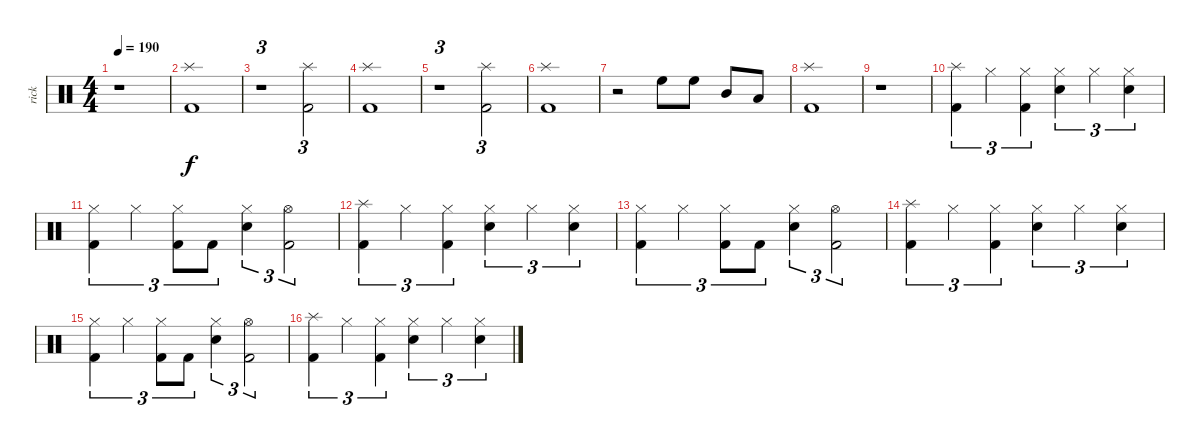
\track ("rick" "rick") {instrument percussion}
\staff {score}
\articulation defaults
\ts (4 4)
\tempo 190
\clef neutral
\ks c
r.1{dy f} |
("Splash (hit)" "Kick (hit) 2").1 |
r.1{tu (3 2)} ("Splash (hit)" "Kick (hit) 2").2{tu (3 2)} |
("Splash (hit)" "Kick (hit) 2").1 |
r.1{tu (3 2)} ("Splash (hit)" "Kick (hit) 2").2{tu (3 2)} |
("Splash (hit)" "Kick (hit) 2").1 |
r.2 "High Floor Tom (hit)".8 "High Floor Tom (hit)".8 "Mid Tom (hit)".8 "Low Floor Tom (hit)".8 |
("Splash (hit)" "Kick (hit) 2").1 |
r.1 |
("Splash (hit)" "Kick (hit) 2").4{tu (3 2)} "Hi-Hat (closed)".4{tu (3 2)} ("Hi-Hat (closed)" "Kick (hit) 2").4{tu (3 2)} ("Hi-Hat (closed)" "Snare (hit) 2").4{tu (3 2)} "Hi-Hat (closed)".4{tu (3 2)} ("Hi-Hat (closed)" "Snare (hit) 2").4{tu (3 2)} |
("Hi-Hat (closed)" "Kick (hit) 2").4{tu (3 2)} "Hi-Hat (closed)".4{tu (3 2)} ("Hi-Hat (closed)" "Kick (hit) 2").8{tu (3 2)} "Kick (hit) 2".8{tu (3 2)} ("Hi-Hat (closed)" "Snare (hit) 2").4{tu (3 2)} ("Hi-Hat (open)" "Kick (hit) 2").2{tu (3 2)} |
("Splash (hit)" "Kick (hit) 2").4{tu (3 2)} "Hi-Hat (closed)".4{tu (3 2)} ("Hi-Hat (closed)" "Kick (hit) 2").4{tu (3 2)} ("Hi-Hat (closed)" "Snare (hit) 2").4{tu (3 2)} "Hi-Hat (closed)".4{tu (3 2)} ("Hi-Hat (closed)" "Snare (hit) 2").4{tu (3 2)} |
("Hi-Hat (closed)" "Kick (hit) 2").4{tu (3 2)} "Hi-Hat (closed)".4{tu (3 2)} ("Hi-Hat (closed)" "Kick (hit) 2").8{tu (3 2)} "Kick (hit) 2".8{tu (3 2)} ("Hi-Hat (closed)" "Snare (hit) 2").4{tu (3 2)} ("Hi-Hat (open)" "Kick (hit) 2").2{tu (3 2)} |
("Splash (hit)" "Kick (hit) 2").4{tu (3 2)} "Hi-Hat (closed)".4{tu (3 2)} ("Hi-Hat (closed)" "Kick (hit) 2").4{tu (3 2)} ("Hi-Hat (closed)" "Snare (hit) 2").4{tu (3 2)} "Hi-Hat (closed)".4{tu (3 2)} ("Hi-Hat (closed)" "Snare (hit) 2").4{tu (3 2)} |
("Hi-Hat (closed)" "Kick (hit) 2").4{tu (3 2)} "Hi-Hat (closed)".4{tu (3 2)} ("Hi-Hat (closed)" "Kick (hit) 2").8{tu (3 2)} "Kick (hit) 2".8{tu (3 2)} ("Hi-Hat (closed)" "Snare (hit) 2").4{tu (3 2)} ("Hi-Hat (open)" "Kick (hit) 2").2{tu (3 2)} |
("Splash (hit)" "Kick (hit) 2").4{tu (3 2)} "Hi-Hat (closed)".4{tu (3 2)} ("Hi-Hat (closed)" "Kick (hit) 2").4{tu (3 2)} ("Hi-Hat (closed)" "Snare (hit) 2").4{tu (3 2)} "Hi-Hat (closed)".4{tu (3 2)} ("Hi-Hat (closed)" "Snare (hit) 2").4{tu (3 2)}
